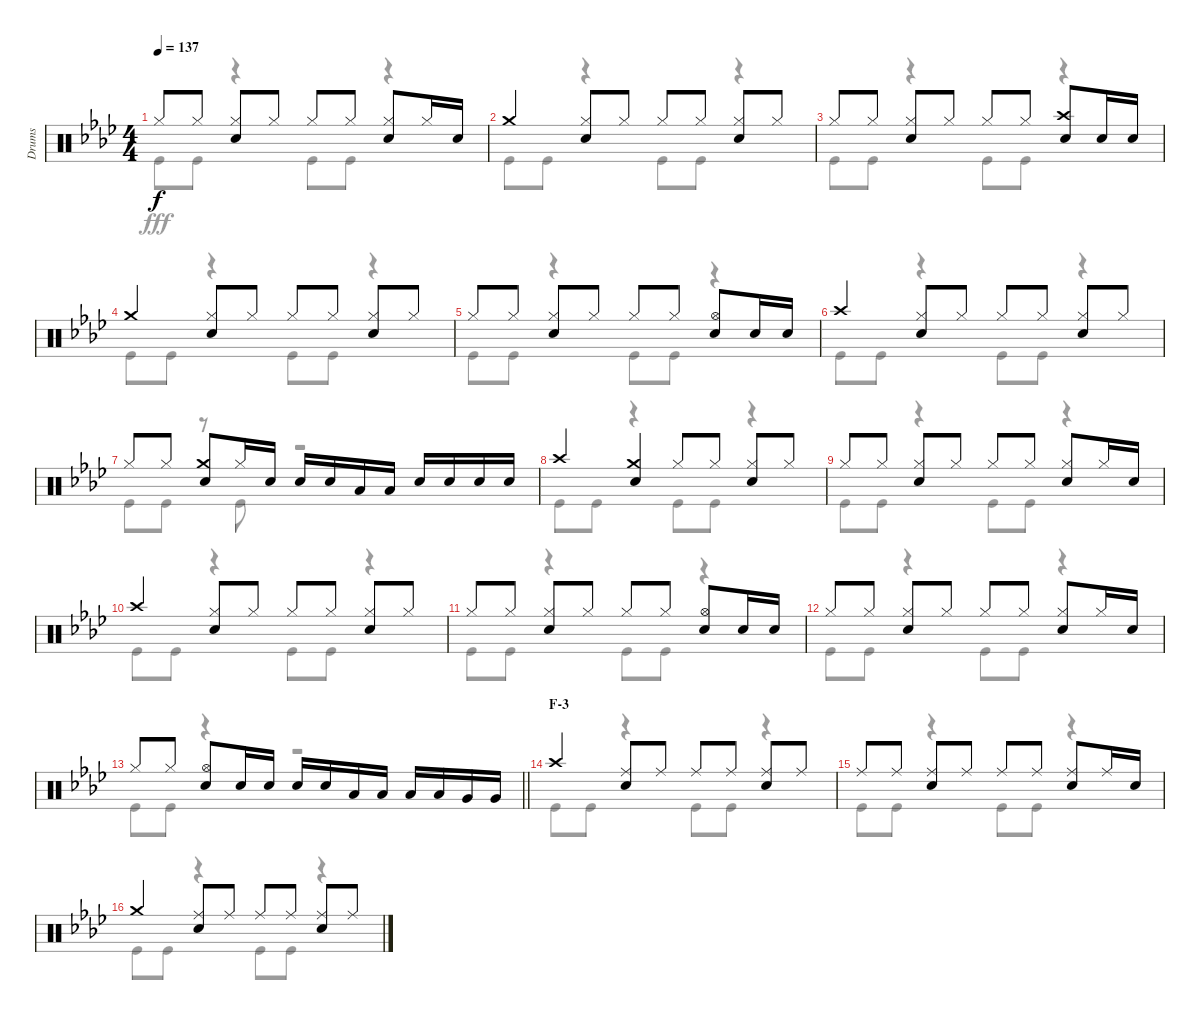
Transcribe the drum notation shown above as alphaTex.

\track ("Drums" "Drums") {instrument percussion}
\staff {score}
\articulation defaults
\voice
\ts (4 4)
\tempo 137
\clef neutral
\ks ab "Hi-Hat (closed)".8{dy f} "Hi-Hat (closed)".8
("Hi-Hat (closed)" "Snare (hit) 2").8 "Hi-Hat (closed)".8 "Hi-Hat (closed)".8 "Hi-Hat (closed)".8 ("Hi-Hat (closed)" "Snare (hit) 2").8 "Hi-Hat (closed)".16 "Snare (hit) 2".16 |
"Crash medium (hit)".4 ("Hi-Hat (closed)" "Snare (hit) 2").8 "Hi-Hat (closed)".8 "Hi-Hat (closed)".8 "Hi-Hat (closed)".8 ("Hi-Hat (closed)" "Snare (hit) 2").8 "Hi-Hat (closed)".8 |
"Hi-Hat (closed)".8 "Hi-Hat (closed)".8 ("Hi-Hat (closed)" "Snare (hit) 2").8 "Hi-Hat (closed)".8 "Hi-Hat (closed)".8 "Hi-Hat (closed)".8 ("Crash high (hit)" "Snare (hit) 2").8 "Snare (hit) 2".16 "Snare (hit) 2".16 |
"Crash medium (hit)".4 ("Hi-Hat (closed)" "Snare (hit) 2").8 "Hi-Hat (closed)".8 "Hi-Hat (closed)".8 "Hi-Hat (closed)".8 ("Hi-Hat (closed)" "Snare (hit) 2").8 "Hi-Hat (closed)".8 |
"Hi-Hat (closed)".8 "Hi-Hat (closed)".8 ("Hi-Hat (closed)" "Snare (hit) 2").8 "Hi-Hat (closed)".8 "Hi-Hat (closed)".8 "Hi-Hat (closed)".8 ("Hi-Hat (open)" "Snare (hit) 2").8 "Snare (hit) 2".16 "Snare (hit) 2".16 |
"Crash high (hit)".4 ("Hi-Hat (closed)" "Snare (hit) 2").8 "Hi-Hat (closed)".8 "Hi-Hat (closed)".8 "Hi-Hat (closed)".8 ("Hi-Hat (closed)" "Snare (hit) 2").8 "Hi-Hat (closed)".8 |
"Hi-Hat (closed)".8 "Hi-Hat (closed)".8 ("Crash medium (hit)" "Snare (hit) 2").8 "Hi-Hat (closed)".16 "Snare (hit) 2".16 "Snare (hit) 2".16 "Snare (hit) 2".16 "Low Tom (hit)".16 "Low Tom (hit)".16 "Snare (hit) 2".16 "Snare (hit) 2".16 "Snare (hit) 2".16 "Snare (hit) 2".16 |
"Crash high (hit)".4 ("Crash medium (hit)" "Snare (hit) 2").4 "Hi-Hat (closed)".8 "Hi-Hat (closed)".8 ("Hi-Hat (closed)" "Snare (hit) 2").8 "Hi-Hat (closed)".8 |
"Hi-Hat (closed)".8 "Hi-Hat (closed)".8 ("Hi-Hat (closed)" "Snare (hit) 2").8 "Hi-Hat (closed)".8 "Hi-Hat (closed)".8 "Hi-Hat (closed)".8 ("Hi-Hat (closed)" "Snare (hit) 2").8 "Hi-Hat (closed)".16 "Snare (hit) 2".16 |
"Crash high (hit)".4 ("Hi-Hat (closed)" "Snare (hit) 2").8 "Hi-Hat (closed)".8 "Hi-Hat (closed)".8 "Hi-Hat (closed)".8 ("Hi-Hat (closed)" "Snare (hit) 2").8 "Hi-Hat (closed)".8 |
"Hi-Hat (closed)".8 "Hi-Hat (closed)".8 ("Hi-Hat (closed)" "Snare (hit) 2").8 "Hi-Hat (closed)".8 "Hi-Hat (closed)".8 "Hi-Hat (closed)".8 ("Hi-Hat (open)" "Snare (hit) 2").8 "Snare (hit) 2".16 "Snare (hit) 2".16 |
"Hi-Hat (closed)".8 "Hi-Hat (closed)".8 ("Hi-Hat (closed)" "Snare (hit) 2").8 "Hi-Hat (closed)".8 "Hi-Hat (closed)".8 "Hi-Hat (closed)".8 ("Hi-Hat (closed)" "Snare (hit) 2").8 "Hi-Hat (closed)".16 "Snare (hit) 2".16 |
\barLineRight lightlight "Hi-Hat (closed)".8 "Hi-Hat (closed)".8
("Hi-Hat (open)" "Snare (hit) 2").8 "Snare (hit) 2".16 "Snare (hit) 2".16 "Snare (hit) 2".16 "Snare (hit) 2".16 "Low Tom (hit)".16 "Low Tom (hit)".16 "Low Tom (hit)".16 "Low Tom (hit)".16 "Very Low Tom (hit)".16 "Very Low Tom (hit)".16 |
\section ("" "F-3")
"Crash high (hit)".4 ("Ride (middle)" "Snare (hit) 2").8 "Ride (middle)".8 "Ride (middle)".8 "Ride (middle)".8 ("Ride (middle)" "Snare (hit) 2").8 "Ride (middle)".8 |
"Ride (middle)".8 "Ride (middle)".8 ("Ride (middle)" "Snare (hit) 2").8 "Ride (middle)".8 "Ride (middle)".8 "Ride (middle)".8 ("Ride (middle)" "Snare (hit) 2").8 "Ride (middle)".16 "Snare (hit) 2".16 |
"Crash medium (hit)".4 ("Ride (middle)" "Snare (hit) 2").8 "Ride (middle)".8 "Ride (middle)".8 "Ride (middle)".8 ("Ride (middle)" "Snare (hit) 2").8 "Ride (middle)".8
\voice
\clef neutral
\ottava regular
\simile none
\ks ab "Kick (hit)".8{dy fff} "Kick (hit)".8
r.4 "Kick (hit)".8 "Kick (hit)".8 r.4 |
"Kick (hit)".8 "Kick (hit)".8 r.4 "Kick (hit)".8 "Kick (hit)".8 r.4 |
"Kick (hit)".8 "Kick (hit)".8 r.4 "Kick (hit)".8 "Kick (hit)".8 r.4 |
"Kick (hit)".8 "Kick (hit)".8 r.4 "Kick (hit)".8 "Kick (hit)".8 r.4 |
"Kick (hit)".8 "Kick (hit)".8 r.4 "Kick (hit)".8 "Kick (hit)".8 r.4 |
"Kick (hit)".8 "Kick (hit)".8 r.4 "Kick (hit)".8 "Kick (hit)".8 r.4 |
"Kick (hit)".8 "Kick (hit)".8 r.8 "Kick (hit)".8 r.2 |
"Kick (hit)".8 "Kick (hit)".8 r.4 "Kick (hit)".8 "Kick (hit)".8 r.4 |
"Kick (hit)".8 "Kick (hit)".8 r.4 "Kick (hit)".8 "Kick (hit)".8 r.4 |
"Kick (hit)".8 "Kick (hit)".8 r.4 "Kick (hit)".8 "Kick (hit)".8 r.4 |
"Kick (hit)".8 "Kick (hit)".8 r.4 "Kick (hit)".8 "Kick (hit)".8 r.4 |
"Kick (hit)".8 "Kick (hit)".8 r.4 "Kick (hit)".8 "Kick (hit)".8 r.4 |
\barLineRight lightlight "Kick (hit)".8 "Kick (hit)".8
r.4 r.2 |
"Kick (hit)".8 "Kick (hit)".8 r.4 "Kick (hit)".8 "Kick (hit)".8 r.4 |
"Kick (hit)".8 "Kick (hit)".8 r.4 "Kick (hit)".8 "Kick (hit)".8 r.4 |
"Kick (hit)".8 "Kick (hit)".8 r.4 "Kick (hit)".8 "Kick (hit)".8 r.4
